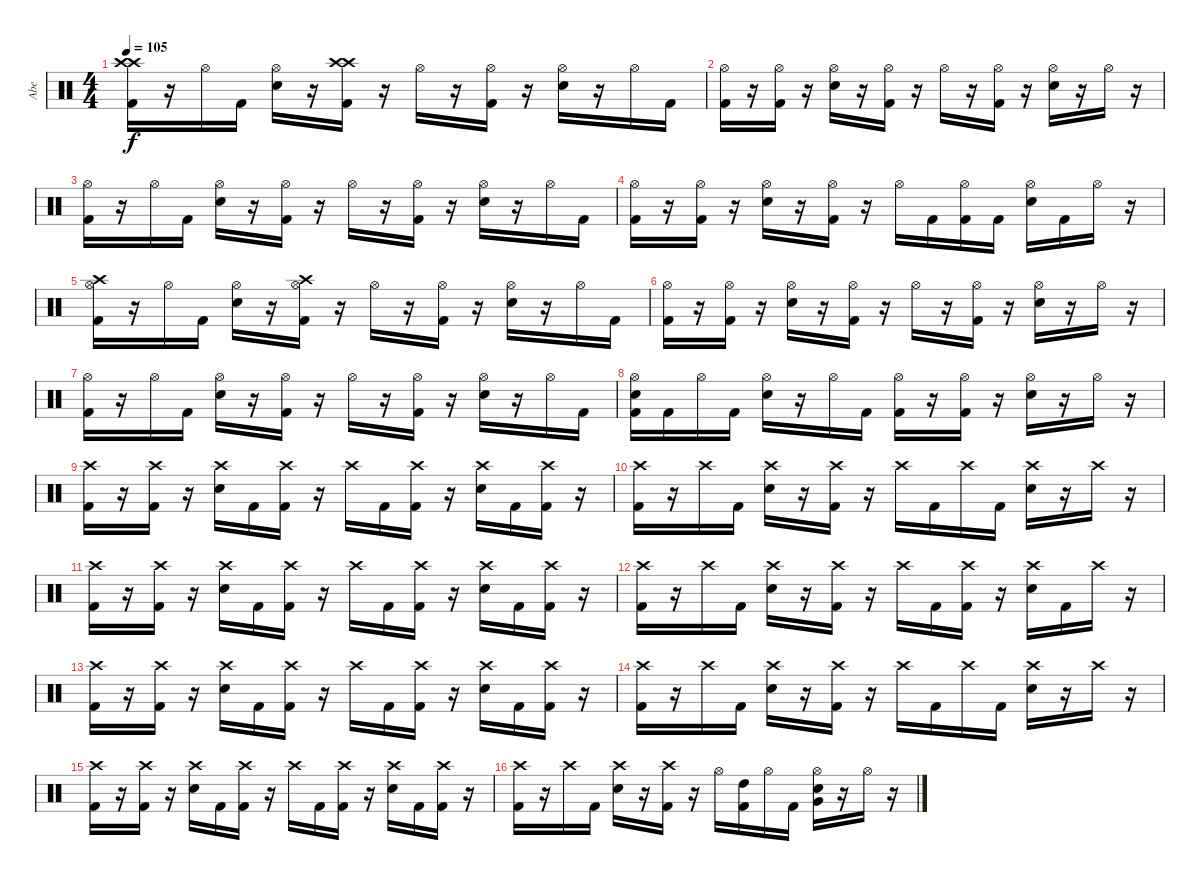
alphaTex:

\track ("Abe" "Abe") {instrument percussion}
\staff {score}
\articulation defaults
\ts (4 4)
\tempo 105
\clef neutral
\ks c
("Crash high (hit)" "Crash high (hit)" "Kick (hit) 2").16{dy f} r.16 "Hi-Hat (open)".16 "Kick (hit) 2".16 ("Hi-Hat (open)" "Electric Snare (hit)").16 r.16 ("Crash high (hit)" "Crash high (hit)" "Kick (hit) 2").16 r.16 "Hi-Hat (open)".16 r.16 ("Hi-Hat (open)" "Kick (hit) 2").16 r.16 ("Hi-Hat (open)" "Electric Snare (hit)").16 r.16 "Hi-Hat (open)".16 "Kick (hit) 2".16 |
("Hi-Hat (open)" "Kick (hit) 2").16 r.16 ("Hi-Hat (open)" "Kick (hit) 2").16 r.16 ("Hi-Hat (open)" "Electric Snare (hit)").16 r.16 ("Hi-Hat (open)" "Kick (hit) 2").16 r.16 "Hi-Hat (open)".16 r.16 ("Hi-Hat (open)" "Kick (hit) 2").16 r.16 ("Hi-Hat (open)" "Electric Snare (hit)").16 r.16 "Hi-Hat (open)".16 r.16 |
("Hi-Hat (open)" "Kick (hit) 2").16 r.16 "Hi-Hat (open)".16 "Kick (hit) 2".16 ("Hi-Hat (open)" "Electric Snare (hit)").16 r.16 ("Hi-Hat (open)" "Kick (hit) 2").16 r.16 "Hi-Hat (open)".16 r.16 ("Hi-Hat (open)" "Kick (hit) 2").16 r.16 ("Hi-Hat (open)" "Electric Snare (hit)").16 r.16 "Hi-Hat (open)".16 "Kick (hit) 2".16 |
("Hi-Hat (open)" "Kick (hit) 2").16 r.16 ("Hi-Hat (open)" "Kick (hit) 2").16 r.16 ("Hi-Hat (open)" "Electric Snare (hit)").16 r.16 ("Hi-Hat (open)" "Kick (hit) 2").16 r.16 "Hi-Hat (open)".16 "Kick (hit) 2".16 ("Hi-Hat (open)" "Kick (hit) 2").16 "Kick (hit) 2".16 ("Hi-Hat (open)" "Electric Snare (hit)").16 "Kick (hit) 2".16 "Hi-Hat (open)".16 r.16 |
("Crash high (hit)" "Hi-Hat (open)" "Kick (hit) 2").16 r.16 "Hi-Hat (open)".16 "Kick (hit) 2".16 ("Hi-Hat (open)" "Electric Snare (hit)").16 r.16 ("Crash high (hit)" "Hi-Hat (open)" "Kick (hit) 2").16 r.16 "Hi-Hat (open)".16 r.16 ("Hi-Hat (open)" "Kick (hit) 2").16 r.16 ("Hi-Hat (open)" "Electric Snare (hit)").16 r.16 "Hi-Hat (open)".16 "Kick (hit) 2".16 |
("Hi-Hat (open)" "Kick (hit) 2").16 r.16 ("Hi-Hat (open)" "Kick (hit) 2").16 r.16 ("Hi-Hat (open)" "Electric Snare (hit)").16 r.16 ("Hi-Hat (open)" "Kick (hit) 2").16 r.16 "Hi-Hat (open)".16 r.16 ("Hi-Hat (open)" "Kick (hit) 2").16 r.16 ("Hi-Hat (open)" "Electric Snare (hit)").16 r.16 "Hi-Hat (open)".16 r.16 |
("Hi-Hat (open)" "Kick (hit) 2").16 r.16 "Hi-Hat (open)".16 "Kick (hit) 2".16 ("Hi-Hat (open)" "Electric Snare (hit)").16 r.16 ("Hi-Hat (open)" "Kick (hit) 2").16 r.16 "Hi-Hat (open)".16 r.16 ("Hi-Hat (open)" "Kick (hit) 2").16 r.16 ("Hi-Hat (open)" "Electric Snare (hit)").16 r.16 "Hi-Hat (open)".16 "Kick (hit) 2".16 |
("Electric Snare (hit)" "Hi-Hat (open)" "Kick (hit) 2").16 "Kick (hit) 2".16 "Hi-Hat (open)".16 "Kick (hit) 2".16 ("Hi-Hat (open)" "Electric Snare (hit)").16 r.16 "Hi-Hat (open)".16 "Kick (hit) 2".16 ("Hi-Hat (open)" "Kick (hit) 2").16 r.16 ("Hi-Hat (open)" "Kick (hit) 2").16 r.16 ("Hi-Hat (open)" "Electric Snare (hit)").16 r.16 "Hi-Hat (open)".16 r.16 |
("Crash high (hit)" "Kick (hit) 2").16 r.16 ("Crash high (hit)" "Kick (hit) 2").16 r.16 ("Crash high (hit)" "Electric Snare (hit)").16 "Kick (hit) 2".16 ("Crash high (hit)" "Kick (hit) 2").16 r.16 "Crash high (hit)".16 "Kick (hit) 2".16 ("Crash high (hit)" "Kick (hit) 2").16 r.16 ("Crash high (hit)" "Electric Snare (hit)").16 "Kick (hit) 2".16 ("Crash high (hit)" "Kick (hit) 2").16 r.16 |
("Crash high (hit)" "Kick (hit) 2").16 r.16 "Crash high (hit)".16 "Kick (hit) 2".16 ("Crash high (hit)" "Electric Snare (hit)").16 r.16 ("Crash high (hit)" "Kick (hit) 2").16 r.16 "Crash high (hit)".16 "Kick (hit) 2".16 "Crash high (hit)".16 "Kick (hit) 2".16 ("Crash high (hit)" "Electric Snare (hit)").16 r.16 "Crash high (hit)".16 r.16 |
("Crash high (hit)" "Kick (hit) 2").16 r.16 ("Crash high (hit)" "Kick (hit) 2").16 r.16 ("Crash high (hit)" "Electric Snare (hit)").16 "Kick (hit) 2".16 ("Crash high (hit)" "Kick (hit) 2").16 r.16 "Crash high (hit)".16 "Kick (hit) 2".16 ("Crash high (hit)" "Kick (hit) 2").16 r.16 ("Crash high (hit)" "Electric Snare (hit)").16 "Kick (hit) 2".16 ("Crash high (hit)" "Kick (hit) 2").16 r.16 |
("Crash high (hit)" "Kick (hit) 2").16 r.16 "Crash high (hit)".16 "Kick (hit) 2".16 ("Crash high (hit)" "Electric Snare (hit)").16 r.16 ("Crash high (hit)" "Kick (hit) 2").16 r.16 "Crash high (hit)".16 "Kick (hit) 2".16 ("Crash high (hit)" "Kick (hit) 2").16 r.16 ("Crash high (hit)" "Electric Snare (hit)").16 "Kick (hit) 2".16 "Crash high (hit)".16 r.16 |
("Crash high (hit)" "Kick (hit) 2").16 r.16 ("Crash high (hit)" "Kick (hit) 2").16 r.16 ("Crash high (hit)" "Electric Snare (hit)").16 "Kick (hit) 2".16 ("Crash high (hit)" "Kick (hit) 2").16 r.16 "Crash high (hit)".16 "Kick (hit) 2".16 ("Crash high (hit)" "Kick (hit) 2").16 r.16 ("Crash high (hit)" "Electric Snare (hit)").16 "Kick (hit) 2".16 ("Crash high (hit)" "Kick (hit) 2").16 r.16 |
("Crash high (hit)" "Kick (hit) 2").16 r.16 "Crash high (hit)".16 "Kick (hit) 2".16 ("Crash high (hit)" "Electric Snare (hit)").16 r.16 ("Crash high (hit)" "Kick (hit) 2").16 r.16 "Crash high (hit)".16 "Kick (hit) 2".16 "Crash high (hit)".16 "Kick (hit) 2".16 ("Crash high (hit)" "Electric Snare (hit)").16 r.16 "Crash high (hit)".16 r.16 |
("Crash high (hit)" "Kick (hit) 2").16 r.16 ("Crash high (hit)" "Kick (hit) 2").16 r.16 ("Crash high (hit)" "Electric Snare (hit)").16 "Kick (hit) 2".16 ("Crash high (hit)" "Kick (hit) 2").16 r.16 "Crash high (hit)".16 "Kick (hit) 2".16 ("Crash high (hit)" "Kick (hit) 2").16 r.16 ("Crash high (hit)" "Electric Snare (hit)").16 "Kick (hit) 2".16 ("Crash high (hit)" "Kick (hit) 2").16 r.16 |
("Crash high (hit)" "Kick (hit) 2").16 r.16 "Crash high (hit)".16 "Kick (hit) 2".16 ("Crash high (hit)" "Electric Snare (hit)").16 r.16 ("Crash high (hit)" "Kick (hit) 2").16 r.16 "Hi-Hat (open)".16 ("High Tom (hit)" "Kick (hit) 2").16 "Hi-Hat (open)".16 "Kick (hit) 2".16 ("Electric Snare (hit)" "Hi-Hat (open)" "Very Low Tom (hit)").16 r.16 "Hi-Hat (open)".16 r.16
